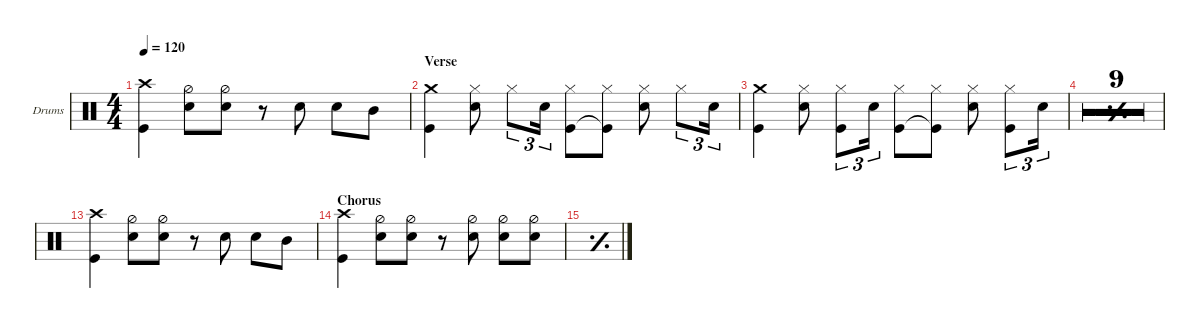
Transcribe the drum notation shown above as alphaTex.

\defaultSystemsLayout 4
\hideDynamics
\bracketExtendMode nobrackets
\firstSystemTrackNameOrientation horizontal
\otherSystemsTrackNameOrientation horizontal
\track ("Drums" "Drums") {multiBarRest instrument percussion}
\staff {score}
\articulation defaults
\ts (4 4)
\tempo 120
\clef neutral
\ks c
("Crash high (hit)" "Kick (hit)").4{dy mf} ("Snare (hit) 2" "Hi-Hat (half)").8 ("Snare (hit) 2" "Hi-Hat (half)").8 r.8 "Snare (hit) 2".8 "Snare (hit) 2".8 "Mid Tom (hit)".8 |
\section ("" "Verse")
("Kick (hit)" "Crash medium (hit)").4 ("Snare (hit) 2" "Hi-Hat (closed)").8 "Hi-Hat (closed)".8{tu (3 2)} "Snare (hit) 2".16{tu (3 2)} ("Kick (hit)" "Hi-Hat (closed)").8 ("Kick (hit)"{t} "Hi-Hat (closed)").8 ("Snare (hit) 2" "Hi-Hat (closed)").8 "Hi-Hat (closed)".8{tu (3 2)} "Snare (hit) 2".16{tu (3 2)} |
("Kick (hit)" "Crash medium (hit)").4 ("Snare (hit) 2" "Hi-Hat (closed)").8 ("Hi-Hat (closed)" "Kick (hit)").8{tu (3 2)} "Snare (hit) 2".16{tu (3 2)} ("Kick (hit)" "Hi-Hat (closed)").8 ("Kick (hit)"{t} "Hi-Hat (closed)").8 ("Snare (hit) 2" "Hi-Hat (closed)").8 ("Hi-Hat (closed)" "Kick (hit)").8{tu (3 2)} "Snare (hit) 2".16{tu (3 2)} |
\simile simple
|
|
|
|
|
|
|
|
|
\simile none
("Crash high (hit)" "Kick (hit)").4 ("Snare (hit) 2" "Hi-Hat (half)").8 ("Snare (hit) 2" "Hi-Hat (half)").8 r.8 "Snare (hit) 2".8 "Snare (hit) 2".8 "Mid Tom (hit)".8 |
\section ("" "Chorus")
("Crash high (hit)" "Kick (hit)").4 ("Snare (hit) 2" "Hi-Hat (half)").8 ("Snare (hit) 2" "Hi-Hat (half)").8 r.8 ("Snare (hit) 2" "Hi-Hat (half)").8 ("Snare (hit) 2" "Hi-Hat (half)").8 ("Snare (hit) 2" "Hi-Hat (half)").8 |
\simile simple
